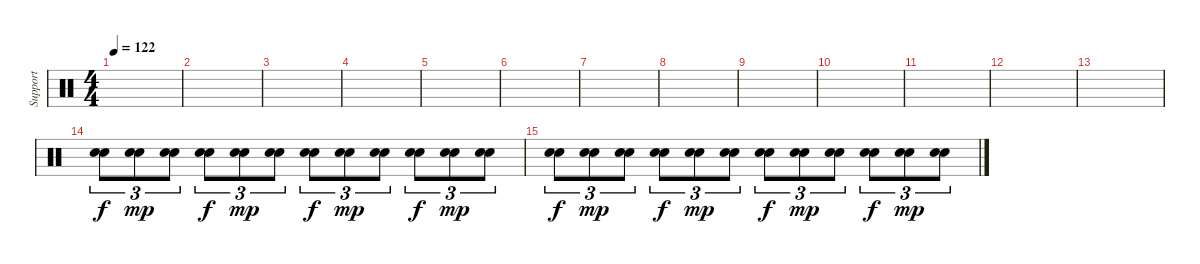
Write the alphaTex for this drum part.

\track ("Support" "Support") {instrument percussion}
\staff {score}
\articulation defaults
\ts (4 4)
\tempo 122
\clef neutral
\ks c
|
|
|
|
|
|
|
|
|
|
|
|
|
("Snare (hit) 2" "Electric Snare (hit)").8{tu (3 2) volume 16} ("Snare (hit) 2" "Electric Snare (hit)").8{tu (3 2) dy mp} ("Snare (hit) 2" "Electric Snare (hit)").8{tu (3 2)} ("Snare (hit) 2" "Electric Snare (hit)").8{tu (3 2) dy f} ("Snare (hit) 2" "Electric Snare (hit)").8{tu (3 2) dy mp} ("Snare (hit) 2" "Electric Snare (hit)").8{tu (3 2)} ("Snare (hit) 2" "Electric Snare (hit)").8{tu (3 2) dy f} ("Snare (hit) 2" "Electric Snare (hit)").8{tu (3 2) dy mp} ("Snare (hit) 2" "Electric Snare (hit)").8{tu (3 2)} ("Snare (hit) 2" "Electric Snare (hit)").8{tu (3 2) dy f} ("Snare (hit) 2" "Electric Snare (hit)").8{tu (3 2) dy mp} ("Snare (hit) 2" "Electric Snare (hit)").8{tu (3 2)} |
("Snare (hit) 2" "Electric Snare (hit)").8{tu (3 2) dy f} ("Snare (hit) 2" "Electric Snare (hit)").8{tu (3 2) dy mp} ("Snare (hit) 2" "Electric Snare (hit)").8{tu (3 2)} ("Snare (hit) 2" "Electric Snare (hit)").8{tu (3 2) dy f} ("Snare (hit) 2" "Electric Snare (hit)").8{tu (3 2) dy mp} ("Snare (hit) 2" "Electric Snare (hit)").8{tu (3 2)} ("Snare (hit) 2" "Electric Snare (hit)").8{tu (3 2) dy f} ("Snare (hit) 2" "Electric Snare (hit)").8{tu (3 2) dy mp} ("Snare (hit) 2" "Electric Snare (hit)").8{tu (3 2)} ("Snare (hit) 2" "Electric Snare (hit)").8{tu (3 2) dy f} ("Snare (hit) 2" "Electric Snare (hit)").8{tu (3 2) dy mp} ("Snare (hit) 2" "Electric Snare (hit)").8{tu (3 2)}
